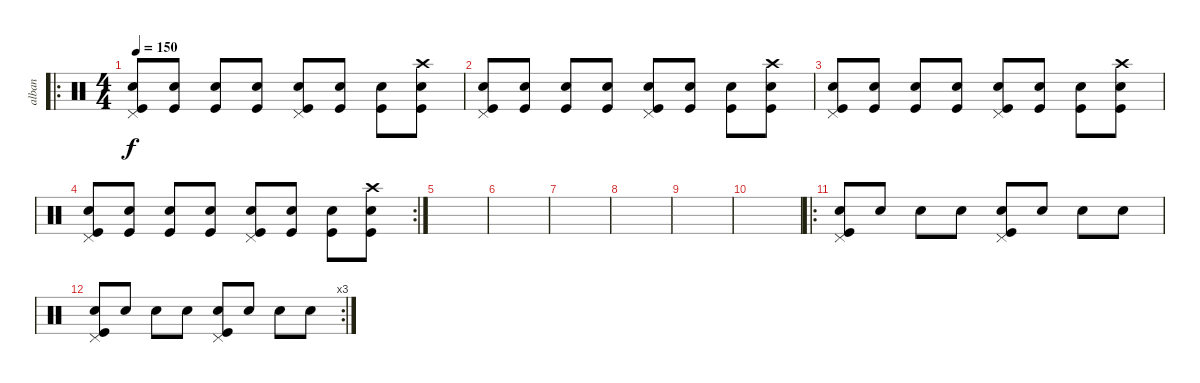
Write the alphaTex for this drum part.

\track ("alban" "alban") {instrument percussion}
\staff {score}
\articulation defaults
\ro
\ts (4 4)
\tempo 150
\clef neutral
\ks c
("Electric Snare (hit)" "Kick (hit)" "Pedal Hi-Hat (hit)").8{dy f} ("Electric Snare (hit)" "Kick (hit)").8 ("Electric Snare (hit)" "Kick (hit)").8 ("Electric Snare (hit)" "Kick (hit)").8 ("Electric Snare (hit)" "Kick (hit)" "Pedal Hi-Hat (hit)").8 ("Electric Snare (hit)" "Kick (hit)").8 ("Electric Snare (hit)" "Kick (hit)").8 ("Electric Snare (hit)" "Kick (hit)" "Crash high (hit)").8 |
("Electric Snare (hit)" "Kick (hit)" "Pedal Hi-Hat (hit)").8 ("Electric Snare (hit)" "Kick (hit)").8 ("Electric Snare (hit)" "Kick (hit)").8 ("Electric Snare (hit)" "Kick (hit)").8 ("Electric Snare (hit)" "Kick (hit)" "Pedal Hi-Hat (hit)").8 ("Electric Snare (hit)" "Kick (hit)").8 ("Electric Snare (hit)" "Kick (hit)").8 ("Electric Snare (hit)" "Kick (hit)" "Crash high (hit)").8 |
("Electric Snare (hit)" "Kick (hit)" "Pedal Hi-Hat (hit)").8 ("Electric Snare (hit)" "Kick (hit)").8 ("Electric Snare (hit)" "Kick (hit)").8 ("Electric Snare (hit)" "Kick (hit)").8 ("Electric Snare (hit)" "Kick (hit)" "Pedal Hi-Hat (hit)").8 ("Electric Snare (hit)" "Kick (hit)").8 ("Electric Snare (hit)" "Kick (hit)").8 ("Electric Snare (hit)" "Kick (hit)" "Crash high (hit)").8 |
\rc 2
("Electric Snare (hit)" "Kick (hit)" "Pedal Hi-Hat (hit)").8 ("Electric Snare (hit)" "Kick (hit)").8 ("Electric Snare (hit)" "Kick (hit)").8 ("Electric Snare (hit)" "Kick (hit)").8 ("Electric Snare (hit)" "Kick (hit)" "Pedal Hi-Hat (hit)").8 ("Electric Snare (hit)" "Kick (hit)").8 ("Electric Snare (hit)" "Kick (hit)").8 ("Electric Snare (hit)" "Kick (hit)" "Crash high (hit)").8 |
|
|
|
|
|
|
\ro
("Pedal Hi-Hat (hit)" "Snare (hit) 2" "Kick (hit)").8 "Snare (hit) 2".8 "Snare (hit) 2".8 "Snare (hit) 2".8 ("Pedal Hi-Hat (hit)" "Snare (hit) 2" "Kick (hit)").8 "Snare (hit) 2".8 "Snare (hit) 2".8 "Snare (hit) 2".8 |
\rc 3
("Pedal Hi-Hat (hit)" "Snare (hit) 2" "Kick (hit)").8 "Snare (hit) 2".8 "Snare (hit) 2".8 "Snare (hit) 2".8 ("Pedal Hi-Hat (hit)" "Snare (hit) 2" "Kick (hit)").8 "Snare (hit) 2".8 "Snare (hit) 2".8 "Snare (hit) 2".8
